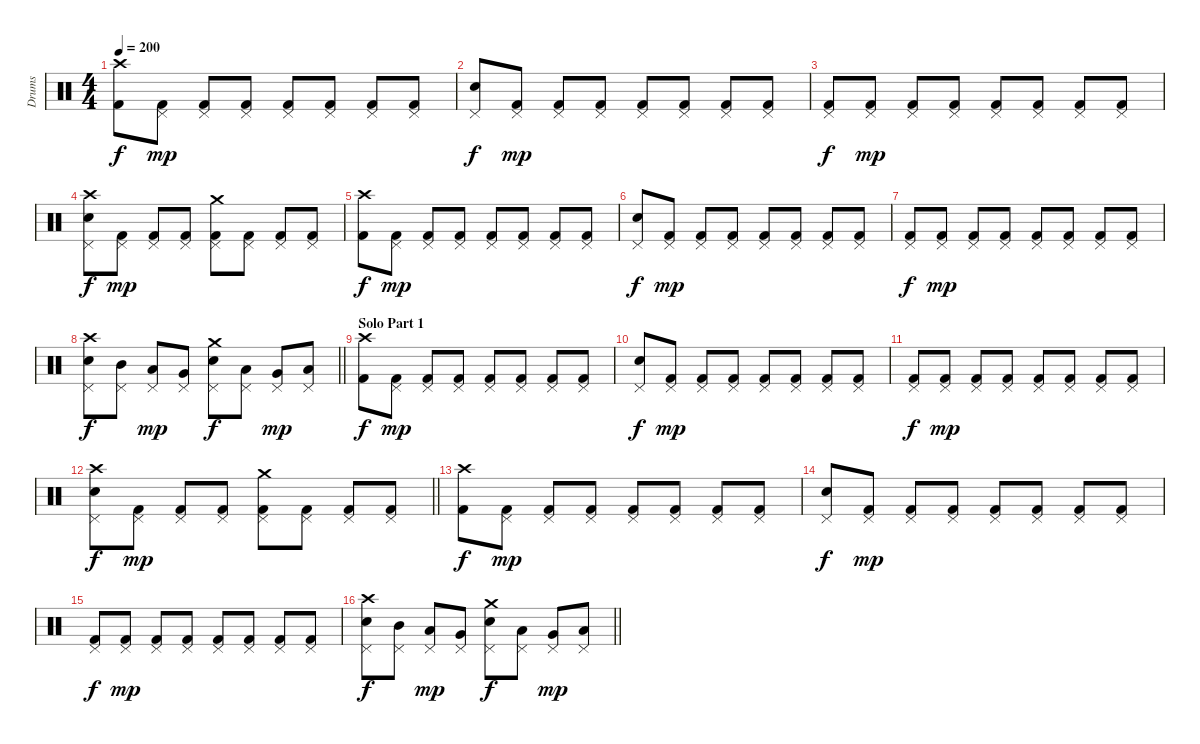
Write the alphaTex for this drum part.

\track ("Drums" "Drums") {instrument percussion}
\staff {score}
\articulation defaults
\ts (4 4)
\tempo 200
\clef neutral
\ks c
("Crash high (hit)" "Kick (hit) 2").8{dy f} ("Pedal Hi-Hat (hit)" "Kick (hit) 2").8{dy mp} ("Pedal Hi-Hat (hit)" "Kick (hit) 2").8 ("Pedal Hi-Hat (hit)" "Kick (hit) 2").8 ("Pedal Hi-Hat (hit)" "Kick (hit) 2").8 ("Pedal Hi-Hat (hit)" "Kick (hit) 2").8 ("Pedal Hi-Hat (hit)" "Kick (hit) 2").8 ("Pedal Hi-Hat (hit)" "Kick (hit) 2").8 |
("Pedal Hi-Hat (hit)" "Electric Snare (hit)").8{dy f} ("Pedal Hi-Hat (hit)" "Kick (hit) 2").8{dy mp} ("Pedal Hi-Hat (hit)" "Kick (hit) 2").8 ("Pedal Hi-Hat (hit)" "Kick (hit) 2").8 ("Pedal Hi-Hat (hit)" "Kick (hit) 2").8 ("Pedal Hi-Hat (hit)" "Kick (hit) 2").8 ("Pedal Hi-Hat (hit)" "Kick (hit) 2").8 ("Pedal Hi-Hat (hit)" "Kick (hit) 2").8 |
("Pedal Hi-Hat (hit)" "Kick (hit) 2").8{dy f} ("Pedal Hi-Hat (hit)" "Kick (hit) 2").8{dy mp} ("Pedal Hi-Hat (hit)" "Kick (hit) 2").8 ("Pedal Hi-Hat (hit)" "Kick (hit) 2").8 ("Pedal Hi-Hat (hit)" "Kick (hit) 2").8 ("Pedal Hi-Hat (hit)" "Kick (hit) 2").8 ("Pedal Hi-Hat (hit)" "Kick (hit) 2").8 ("Pedal Hi-Hat (hit)" "Kick (hit) 2").8 |
("Crash high (hit)" "Pedal Hi-Hat (hit)" "Electric Snare (hit)").8{dy f} ("Pedal Hi-Hat (hit)" "Kick (hit) 2").8{dy mp} ("Pedal Hi-Hat (hit)" "Kick (hit) 2").8 ("Pedal Hi-Hat (hit)" "Kick (hit) 2").8 ("Crash medium (hit)" "Pedal Hi-Hat (hit)" "Kick (hit) 2").8 ("Pedal Hi-Hat (hit)" "Kick (hit) 2").8 ("Pedal Hi-Hat (hit)" "Kick (hit) 2").8 ("Pedal Hi-Hat (hit)" "Kick (hit) 2").8 |
("Crash high (hit)" "Kick (hit) 2").8{dy f} ("Pedal Hi-Hat (hit)" "Kick (hit) 2").8{dy mp} ("Pedal Hi-Hat (hit)" "Kick (hit) 2").8 ("Pedal Hi-Hat (hit)" "Kick (hit) 2").8 ("Pedal Hi-Hat (hit)" "Kick (hit) 2").8 ("Pedal Hi-Hat (hit)" "Kick (hit) 2").8 ("Pedal Hi-Hat (hit)" "Kick (hit) 2").8 ("Pedal Hi-Hat (hit)" "Kick (hit) 2").8 |
("Pedal Hi-Hat (hit)" "Electric Snare (hit)").8{dy f} ("Pedal Hi-Hat (hit)" "Kick (hit) 2").8{dy mp} ("Pedal Hi-Hat (hit)" "Kick (hit) 2").8 ("Pedal Hi-Hat (hit)" "Kick (hit) 2").8 ("Pedal Hi-Hat (hit)" "Kick (hit) 2").8 ("Pedal Hi-Hat (hit)" "Kick (hit) 2").8 ("Pedal Hi-Hat (hit)" "Kick (hit) 2").8 ("Pedal Hi-Hat (hit)" "Kick (hit) 2").8 |
("Pedal Hi-Hat (hit)" "Kick (hit) 2").8{dy f} ("Pedal Hi-Hat (hit)" "Kick (hit) 2").8{dy mp} ("Pedal Hi-Hat (hit)" "Kick (hit) 2").8 ("Pedal Hi-Hat (hit)" "Kick (hit) 2").8 ("Pedal Hi-Hat (hit)" "Kick (hit) 2").8 ("Pedal Hi-Hat (hit)" "Kick (hit) 2").8 ("Pedal Hi-Hat (hit)" "Kick (hit) 2").8 ("Pedal Hi-Hat (hit)" "Kick (hit) 2").8 |
\barLineRight lightlight
("Crash high (hit)" "Pedal Hi-Hat (hit)" "Electric Snare (hit)").8{dy f} ("Pedal Hi-Hat (hit)" "Mid Tom (hit)").8 ("Pedal Hi-Hat (hit)" "Low Tom (hit)").8{dy mp} ("Pedal Hi-Hat (hit)" "Very Low Tom (hit)").8 ("Crash medium (hit)" "Pedal Hi-Hat (hit)" "Electric Snare (hit)").8{dy f} ("Pedal Hi-Hat (hit)" "Low Tom (hit)").8 ("Pedal Hi-Hat (hit)" "Very Low Tom (hit)").8{dy mp} ("Pedal Hi-Hat (hit)" "Low Floor Tom (hit)").8 |
\section ("" "Solo Part 1")
("Crash high (hit)" "Kick (hit) 2").8{dy f} ("Pedal Hi-Hat (hit)" "Kick (hit) 2").8{dy mp} ("Pedal Hi-Hat (hit)" "Kick (hit) 2").8 ("Pedal Hi-Hat (hit)" "Kick (hit) 2").8 ("Pedal Hi-Hat (hit)" "Kick (hit) 2").8 ("Pedal Hi-Hat (hit)" "Kick (hit) 2").8 ("Pedal Hi-Hat (hit)" "Kick (hit) 2").8 ("Pedal Hi-Hat (hit)" "Kick (hit) 2").8 |
("Pedal Hi-Hat (hit)" "Electric Snare (hit)").8{dy f} ("Pedal Hi-Hat (hit)" "Kick (hit) 2").8{dy mp} ("Pedal Hi-Hat (hit)" "Kick (hit) 2").8 ("Pedal Hi-Hat (hit)" "Kick (hit) 2").8 ("Pedal Hi-Hat (hit)" "Kick (hit) 2").8 ("Pedal Hi-Hat (hit)" "Kick (hit) 2").8 ("Pedal Hi-Hat (hit)" "Kick (hit) 2").8 ("Pedal Hi-Hat (hit)" "Kick (hit) 2").8 |
("Pedal Hi-Hat (hit)" "Kick (hit) 2").8{dy f} ("Pedal Hi-Hat (hit)" "Kick (hit) 2").8{dy mp} ("Pedal Hi-Hat (hit)" "Kick (hit) 2").8 ("Pedal Hi-Hat (hit)" "Kick (hit) 2").8 ("Pedal Hi-Hat (hit)" "Kick (hit) 2").8 ("Pedal Hi-Hat (hit)" "Kick (hit) 2").8 ("Pedal Hi-Hat (hit)" "Kick (hit) 2").8 ("Pedal Hi-Hat (hit)" "Kick (hit) 2").8 |
\barLineRight lightlight
("Crash high (hit)" "Pedal Hi-Hat (hit)" "Electric Snare (hit)").8{dy f} ("Pedal Hi-Hat (hit)" "Kick (hit) 2").8{dy mp} ("Pedal Hi-Hat (hit)" "Kick (hit) 2").8 ("Pedal Hi-Hat (hit)" "Kick (hit) 2").8 ("Crash medium (hit)" "Pedal Hi-Hat (hit)" "Kick (hit) 2").8 ("Pedal Hi-Hat (hit)" "Kick (hit) 2").8 ("Pedal Hi-Hat (hit)" "Kick (hit) 2").8 ("Pedal Hi-Hat (hit)" "Kick (hit) 2").8 |
("Crash high (hit)" "Kick (hit) 2").8{dy f} ("Pedal Hi-Hat (hit)" "Kick (hit) 2").8{dy mp} ("Pedal Hi-Hat (hit)" "Kick (hit) 2").8 ("Pedal Hi-Hat (hit)" "Kick (hit) 2").8 ("Pedal Hi-Hat (hit)" "Kick (hit) 2").8 ("Pedal Hi-Hat (hit)" "Kick (hit) 2").8 ("Pedal Hi-Hat (hit)" "Kick (hit) 2").8 ("Pedal Hi-Hat (hit)" "Kick (hit) 2").8 |
("Pedal Hi-Hat (hit)" "Electric Snare (hit)").8{dy f} ("Pedal Hi-Hat (hit)" "Kick (hit) 2").8{dy mp} ("Pedal Hi-Hat (hit)" "Kick (hit) 2").8 ("Pedal Hi-Hat (hit)" "Kick (hit) 2").8 ("Pedal Hi-Hat (hit)" "Kick (hit) 2").8 ("Pedal Hi-Hat (hit)" "Kick (hit) 2").8 ("Pedal Hi-Hat (hit)" "Kick (hit) 2").8 ("Pedal Hi-Hat (hit)" "Kick (hit) 2").8 |
("Pedal Hi-Hat (hit)" "Kick (hit) 2").8{dy f} ("Pedal Hi-Hat (hit)" "Kick (hit) 2").8{dy mp} ("Pedal Hi-Hat (hit)" "Kick (hit) 2").8 ("Pedal Hi-Hat (hit)" "Kick (hit) 2").8 ("Pedal Hi-Hat (hit)" "Kick (hit) 2").8 ("Pedal Hi-Hat (hit)" "Kick (hit) 2").8 ("Pedal Hi-Hat (hit)" "Kick (hit) 2").8 ("Pedal Hi-Hat (hit)" "Kick (hit) 2").8 |
\barLineRight lightlight
("Crash high (hit)" "Pedal Hi-Hat (hit)" "Electric Snare (hit)").8{dy f} ("Pedal Hi-Hat (hit)" "Mid Tom (hit)").8 ("Pedal Hi-Hat (hit)" "Low Tom (hit)").8{dy mp} ("Pedal Hi-Hat (hit)" "Very Low Tom (hit)").8 ("Crash medium (hit)" "Pedal Hi-Hat (hit)" "Electric Snare (hit)").8{dy f} ("Pedal Hi-Hat (hit)" "Low Tom (hit)").8 ("Pedal Hi-Hat (hit)" "Very Low Tom (hit)").8{dy mp} ("Pedal Hi-Hat (hit)" "Low Floor Tom (hit)").8
